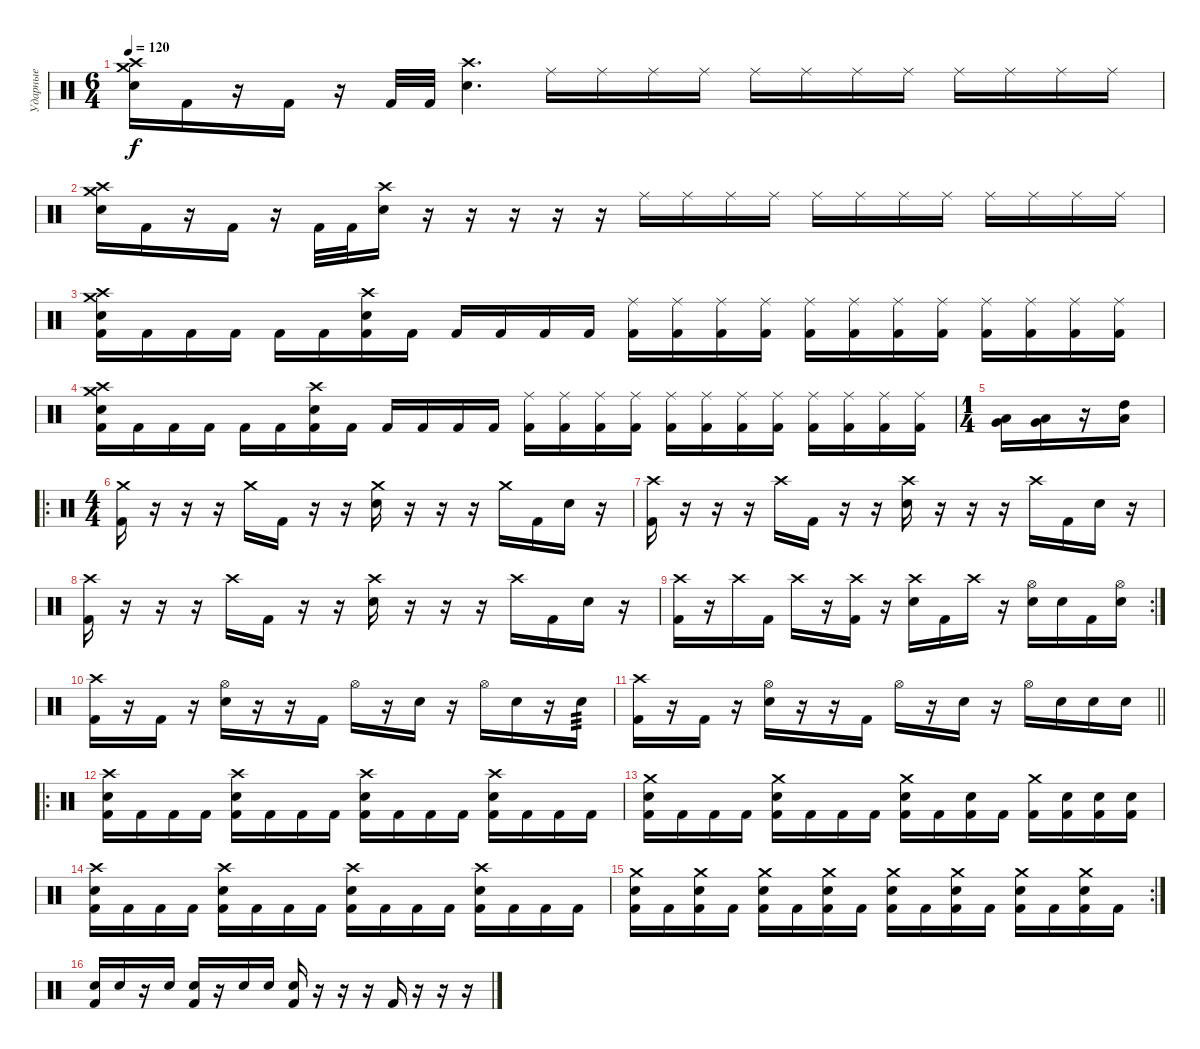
\track ("Ударные" "Ударные") {instrument percussion}
\staff {score}
\articulation defaults
\ts (6 4)
\tempo 120
\clef neutral
\ks c
("Crash medium (hit)" "Crash high (hit)" "Electric Snare (hit)").16{dy f} "Kick (hit) 2".16 r.16 "Kick (hit) 2".16 r.16 "Kick (hit) 2".32 "Kick (hit) 2".32 ("Crash high (hit)" "Electric Snare (hit)").4{d} "Ride (middle)".16 "Ride (middle)".16 "Ride (middle)".16 "Ride (middle)".16 "Ride (middle)".16 "Ride (middle)".16 "Ride (middle)".16 "Ride (middle)".16 "Ride (middle)".16 "Ride (middle)".16 "Ride (middle)".16 "Ride (middle)".16 |
("Crash medium (hit)" "Crash high (hit)" "Electric Snare (hit)").16 "Kick (hit) 2".16 r.16 "Kick (hit) 2".16 r.16 "Kick (hit) 2".32 "Kick (hit) 2".32 ("Crash high (hit)" "Electric Snare (hit)").16 r.16 r.16 r.16 r.16 r.16 "Ride (middle)".16 "Ride (middle)".16 "Ride (middle)".16 "Ride (middle)".16 "Ride (middle)".16 "Ride (middle)".16 "Ride (middle)".16 "Ride (middle)".16 "Ride (middle)".16 "Ride (middle)".16 "Ride (middle)".16 "Ride (middle)".16 |
("Crash medium (hit)" "Crash high (hit)" "Electric Snare (hit)" "Kick (hit) 2").16 "Kick (hit) 2".16 "Kick (hit) 2".16 "Kick (hit) 2".16 "Kick (hit) 2".16 "Kick (hit) 2".16 ("Crash high (hit)" "Electric Snare (hit)" "Kick (hit) 2").16 "Kick (hit) 2".16 "Kick (hit) 2".16 "Kick (hit) 2".16 "Kick (hit) 2".16 "Kick (hit) 2".16 ("Ride (middle)" "Kick (hit) 2").16 ("Ride (middle)" "Kick (hit) 2").16 ("Ride (middle)" "Kick (hit) 2").16 ("Ride (middle)" "Kick (hit) 2").16 ("Ride (middle)" "Kick (hit) 2").16 ("Ride (middle)" "Kick (hit) 2").16 ("Ride (middle)" "Kick (hit) 2").16 ("Ride (middle)" "Kick (hit) 2").16 ("Ride (middle)" "Kick (hit) 2").16 ("Ride (middle)" "Kick (hit) 2").16 ("Ride (middle)" "Kick (hit) 2").16 ("Ride (middle)" "Kick (hit) 2").16 |
("Crash medium (hit)" "Crash high (hit)" "Electric Snare (hit)" "Kick (hit) 2").16 "Kick (hit) 2".16 "Kick (hit) 2".16 "Kick (hit) 2".16 "Kick (hit) 2".16 "Kick (hit) 2".16 ("Crash high (hit)" "Electric Snare (hit)" "Kick (hit) 2").16 "Kick (hit) 2".16 "Kick (hit) 2".16 "Kick (hit) 2".16 "Kick (hit) 2".16 "Kick (hit) 2".16 ("Ride (middle)" "Kick (hit) 2").16 ("Ride (middle)" "Kick (hit) 2").16 ("Ride (middle)" "Kick (hit) 2").16 ("Ride (middle)" "Kick (hit) 2").16 ("Ride (middle)" "Kick (hit) 2").16 ("Ride (middle)" "Kick (hit) 2").16 ("Ride (middle)" "Kick (hit) 2").16 ("Ride (middle)" "Kick (hit) 2").16 ("Ride (middle)" "Kick (hit) 2").16 ("Ride (middle)" "Kick (hit) 2").16 ("Ride (middle)" "Kick (hit) 2").16 ("Ride (middle)" "Kick (hit) 2").16 |
\ts (1 4)
("Low Floor Tom (hit)" "Very Low Tom (hit)").16 ("Low Tom (hit)" "Very Low Tom (hit)").16 r.16 ("High Tom (hit)" "Low Tom (hit)").16 |
\ro
\ts (4 4)
("Crash medium (hit)" "Kick (hit) 2").16 r.16 r.16 r.16 "Crash medium (hit)".16 "Kick (hit) 2".16 r.16 r.16 ("Crash medium (hit)" "Electric Snare (hit)").16 r.16 r.16 r.16 "Crash medium (hit)".16 "Kick (hit) 2".16 "Electric Snare (hit)".16 r.16 |
("Crash high (hit)" "Kick (hit) 2").16 r.16 r.16 r.16 "Crash high (hit)".16 "Kick (hit) 2".16 r.16 r.16 ("Crash high (hit)" "Electric Snare (hit)").16 r.16 r.16 r.16 "Crash high (hit)".16 "Kick (hit) 2".16 "Electric Snare (hit)".16 r.16 |
("Crash high (hit)" "Kick (hit) 2").16 r.16 r.16 r.16 "Crash high (hit)".16 "Kick (hit) 2".16 r.16 r.16 ("Crash high (hit)" "Electric Snare (hit)").16 r.16 r.16 r.16 "Crash high (hit)".16 "Kick (hit) 2".16 "Electric Snare (hit)".16 r.16 |
\rc 2
("Crash high (hit)" "Kick (hit) 2").16 r.16 "Crash high (hit)".16 "Kick (hit) 2".16 "Crash high (hit)".16 r.16 ("Crash high (hit)" "Kick (hit) 2").16 r.16 ("Crash high (hit)" "Electric Snare (hit)").16 "Kick (hit) 2".16 "Crash high (hit)".16 r.16 ("Hi-Hat (open)" "Electric Snare (hit)").16 "Electric Snare (hit)".16 "Kick (hit) 2".16 ("Hi-Hat (open)" "Electric Snare (hit)").16 |
("Crash high (hit)" "Kick (hit) 2").16 r.16 "Kick (hit) 2".16 r.16 ("Hi-Hat (open)" "Electric Snare (hit)").16 r.16 r.16 "Kick (hit) 2".16 "Hi-Hat (open)".16 r.16 "Electric Snare (hit)".16 r.16 "Hi-Hat (open)".16 "Electric Snare (hit)".16 r.16 "Electric Snare (hit)".16{tp 3} |
\barLineRight lightlight
("Crash high (hit)" "Kick (hit) 2").16 r.16 "Kick (hit) 2".16 r.16 ("Hi-Hat (open)" "Electric Snare (hit)").16 r.16 r.16 "Kick (hit) 2".16 "Hi-Hat (open)".16 r.16 "Electric Snare (hit)".16 r.16 "Hi-Hat (open)".16 "Electric Snare (hit)".16 "Electric Snare (hit)".16 "Electric Snare (hit)".16 |
\ro
("Crash high (hit)" "Electric Snare (hit)" "Kick (hit) 2").16 "Kick (hit) 2".16 "Kick (hit) 2".16 "Kick (hit) 2".16 ("Crash high (hit)" "Electric Snare (hit)" "Kick (hit) 2").16 "Kick (hit) 2".16 "Kick (hit) 2".16 "Kick (hit) 2".16 ("Crash high (hit)" "Electric Snare (hit)" "Kick (hit) 2").16 "Kick (hit) 2".16 "Kick (hit) 2".16 "Kick (hit) 2".16 ("Crash high (hit)" "Electric Snare (hit)" "Kick (hit) 2").16 "Kick (hit) 2".16 "Kick (hit) 2".16 "Kick (hit) 2".16 |
("Crash medium (hit)" "Electric Snare (hit)" "Kick (hit) 2").16 "Kick (hit) 2".16 "Kick (hit) 2".16 "Kick (hit) 2".16 ("Crash medium (hit)" "Electric Snare (hit)" "Kick (hit) 2").16 "Kick (hit) 2".16 "Kick (hit) 2".16 "Kick (hit) 2".16 ("Crash medium (hit)" "Electric Snare (hit)" "Kick (hit) 2").16 "Kick (hit) 2".16 ("Electric Snare (hit)" "Kick (hit) 2").16 "Kick (hit) 2".16 ("Crash medium (hit)" "Kick (hit) 2").16 ("Electric Snare (hit)" "Kick (hit) 2").16 ("Electric Snare (hit)" "Kick (hit) 2").16 ("Electric Snare (hit)" "Kick (hit) 2").16 |
("Crash high (hit)" "Electric Snare (hit)" "Kick (hit) 2").16 "Kick (hit) 2".16 "Kick (hit) 2".16 "Kick (hit) 2".16 ("Crash high (hit)" "Electric Snare (hit)" "Kick (hit) 2").16 "Kick (hit) 2".16 "Kick (hit) 2".16 "Kick (hit) 2".16 ("Crash high (hit)" "Electric Snare (hit)" "Kick (hit) 2").16 "Kick (hit) 2".16 "Kick (hit) 2".16 "Kick (hit) 2".16 ("Crash high (hit)" "Electric Snare (hit)" "Kick (hit) 2").16 "Kick (hit) 2".16 "Kick (hit) 2".16 "Kick (hit) 2".16 |
\rc 2
("Crash medium (hit)" "Electric Snare (hit)" "Kick (hit) 2").16 "Kick (hit) 2".16 ("Crash medium (hit)" "Electric Snare (hit)" "Kick (hit) 2").16 "Kick (hit) 2".16 ("Crash medium (hit)" "Electric Snare (hit)" "Kick (hit) 2").16 "Kick (hit) 2".16 ("Crash medium (hit)" "Electric Snare (hit)" "Kick (hit) 2").16 "Kick (hit) 2".16 ("Crash medium (hit)" "Electric Snare (hit)" "Kick (hit) 2").16 "Kick (hit) 2".16 ("Crash medium (hit)" "Electric Snare (hit)" "Kick (hit) 2").16 "Kick (hit) 2".16 ("Crash medium (hit)" "Electric Snare (hit)" "Kick (hit) 2").16 "Kick (hit) 2".16 ("Crash medium (hit)" "Electric Snare (hit)" "Kick (hit) 2").16 "Kick (hit) 2".16 |
("Electric Snare (hit)" "Kick (hit) 2").16 "Electric Snare (hit)".16 r.16 "Electric Snare (hit)".16 ("Electric Snare (hit)" "Kick (hit) 2").16 r.16 "Electric Snare (hit)".16 "Electric Snare (hit)".16 ("Electric Snare (hit)" "Kick (hit) 2").16 r.16 r.16 r.16 "Kick (hit) 2".16 r.16 r.16 r.16
